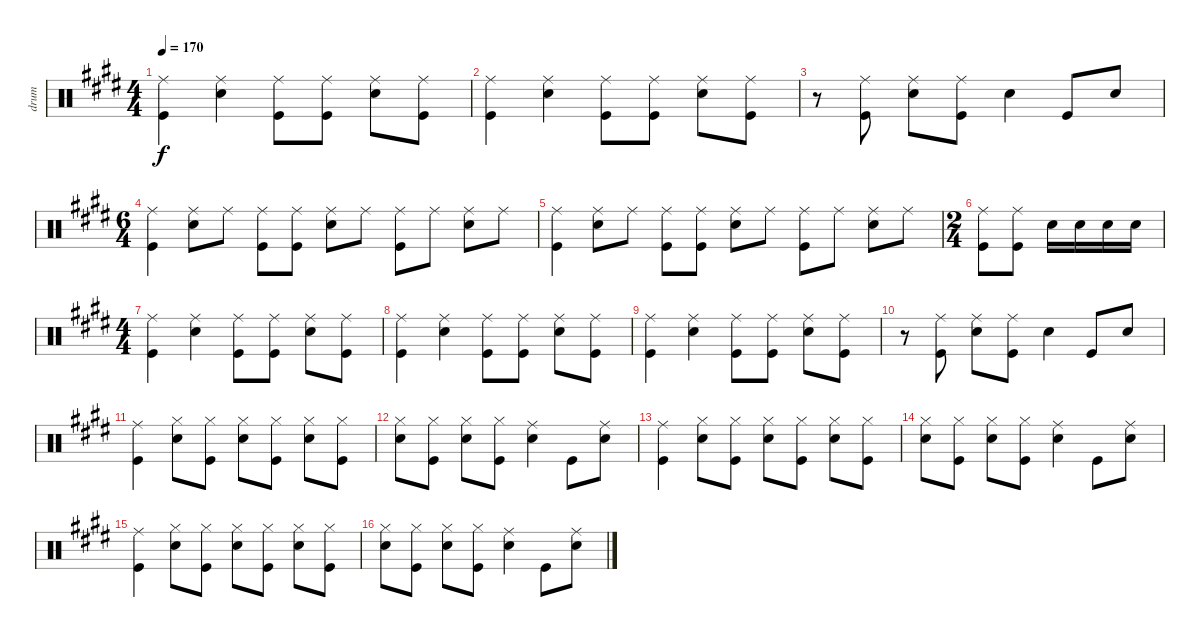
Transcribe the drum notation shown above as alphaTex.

\track ("drum" "drum") {instrument percussion}
\staff {score}
\articulation defaults
\ts (4 4)
\tempo 170
\clef neutral
\ks e
("Ride (middle)" "Kick (hit)").4{dy f} ("Ride (middle)" "Snare (hit) 2").4 ("Kick (hit)" "Ride (middle)").8 ("Kick (hit)" "Ride (middle)").8 ("Snare (hit) 2" "Ride (middle)").8 ("Kick (hit)" "Ride (middle)").8 |
("Ride (middle)" "Kick (hit)").4 ("Ride (middle)" "Snare (hit) 2").4 ("Kick (hit)" "Ride (middle)").8 ("Kick (hit)" "Ride (middle)").8 ("Snare (hit) 2" "Ride (middle)").8 ("Kick (hit)" "Ride (middle)").8 |
r.8 ("Kick (hit)" "Ride (middle)").8 ("Ride (middle)" "Snare (hit) 2").8 ("Ride (middle)" "Kick (hit)").8 "Snare (hit) 2".4 "Kick (hit)".8 "Snare (hit) 2".8 |
\ts (6 4)
("Kick (hit)" "Ride (middle)").4 ("Snare (hit) 2" "Ride (middle)").8 "Ride (middle)".8 ("Kick (hit)" "Ride (middle)").8 ("Kick (hit)" "Ride (middle)").8 ("Snare (hit) 2" "Ride (middle)").8 "Ride (middle)".8 ("Kick (hit)" "Ride (middle)").8 "Ride (middle)".8 ("Snare (hit) 2" "Ride (middle)").8 "Ride (middle)".8 |
("Kick (hit)" "Ride (middle)").4 ("Snare (hit) 2" "Ride (middle)").8 "Ride (middle)".8 ("Kick (hit)" "Ride (middle)").8 ("Kick (hit)" "Ride (middle)").8 ("Snare (hit) 2" "Ride (middle)").8 "Ride (middle)".8 ("Kick (hit)" "Ride (middle)").8 "Ride (middle)".8 ("Snare (hit) 2" "Ride (middle)").8 "Ride (middle)".8 |
\ts (2 4)
("Kick (hit)" "Ride (middle)").8 ("Kick (hit)" "Ride (middle)").8 "Snare (hit) 2".16 "Snare (hit) 2".16 "Snare (hit) 2".16 "Snare (hit) 2".16 |
\ts (4 4)
("Ride (middle)" "Kick (hit)").4 ("Ride (middle)" "Snare (hit) 2").4 ("Kick (hit)" "Ride (middle)").8 ("Kick (hit)" "Ride (middle)").8 ("Snare (hit) 2" "Ride (middle)").8 ("Kick (hit)" "Ride (middle)").8 |
("Ride (middle)" "Kick (hit)").4 ("Ride (middle)" "Snare (hit) 2").4 ("Kick (hit)" "Ride (middle)").8 ("Kick (hit)" "Ride (middle)").8 ("Snare (hit) 2" "Ride (middle)").8 ("Kick (hit)" "Ride (middle)").8 |
("Ride (middle)" "Kick (hit)").4 ("Ride (middle)" "Snare (hit) 2").4 ("Kick (hit)" "Ride (middle)").8 ("Kick (hit)" "Ride (middle)").8 ("Snare (hit) 2" "Ride (middle)").8 ("Kick (hit)" "Ride (middle)").8 |
r.8 ("Kick (hit)" "Ride (middle)").8 ("Ride (middle)" "Snare (hit) 2").8 ("Ride (middle)" "Kick (hit)").8 "Snare (hit) 2".4 "Kick (hit)".8 "Snare (hit) 2".8 |
("Ride (middle)" "Kick (hit)").4 ("Hi-Hat (closed)" "Snare (hit) 2").8 ("Hi-Hat (closed)" "Kick (hit)").8 ("Snare (hit) 2" "Hi-Hat (closed)").8 ("Kick (hit)" "Hi-Hat (closed)").8 ("Snare (hit) 2" "Hi-Hat (closed)").8 ("Kick (hit)" "Hi-Hat (closed)").8 |
("Snare (hit) 2" "Hi-Hat (closed)").8 ("Kick (hit)" "Hi-Hat (closed)").8 ("Snare (hit) 2" "Hi-Hat (closed)").8 ("Kick (hit)" "Hi-Hat (closed)").8 ("Ride (middle)" "Snare (hit) 2").4 "Kick (hit)".8 ("Ride (middle)" "Snare (hit) 2").8 |
("Ride (middle)" "Kick (hit)").4 ("Hi-Hat (closed)" "Snare (hit) 2").8 ("Hi-Hat (closed)" "Kick (hit)").8 ("Snare (hit) 2" "Hi-Hat (closed)").8 ("Kick (hit)" "Hi-Hat (closed)").8 ("Snare (hit) 2" "Hi-Hat (closed)").8 ("Kick (hit)" "Hi-Hat (closed)").8 |
("Snare (hit) 2" "Hi-Hat (closed)").8 ("Kick (hit)" "Hi-Hat (closed)").8 ("Snare (hit) 2" "Hi-Hat (closed)").8 ("Kick (hit)" "Hi-Hat (closed)").8 ("Ride (middle)" "Snare (hit) 2").4 "Kick (hit)".8 ("Ride (middle)" "Snare (hit) 2").8 |
("Ride (middle)" "Kick (hit)").4 ("Hi-Hat (closed)" "Snare (hit) 2").8 ("Hi-Hat (closed)" "Kick (hit)").8 ("Snare (hit) 2" "Hi-Hat (closed)").8 ("Kick (hit)" "Hi-Hat (closed)").8 ("Snare (hit) 2" "Hi-Hat (closed)").8 ("Kick (hit)" "Hi-Hat (closed)").8 |
("Snare (hit) 2" "Hi-Hat (closed)").8 ("Kick (hit)" "Hi-Hat (closed)").8 ("Snare (hit) 2" "Hi-Hat (closed)").8 ("Kick (hit)" "Hi-Hat (closed)").8 ("Ride (middle)" "Snare (hit) 2").4 "Kick (hit)".8 ("Ride (middle)" "Snare (hit) 2").8
